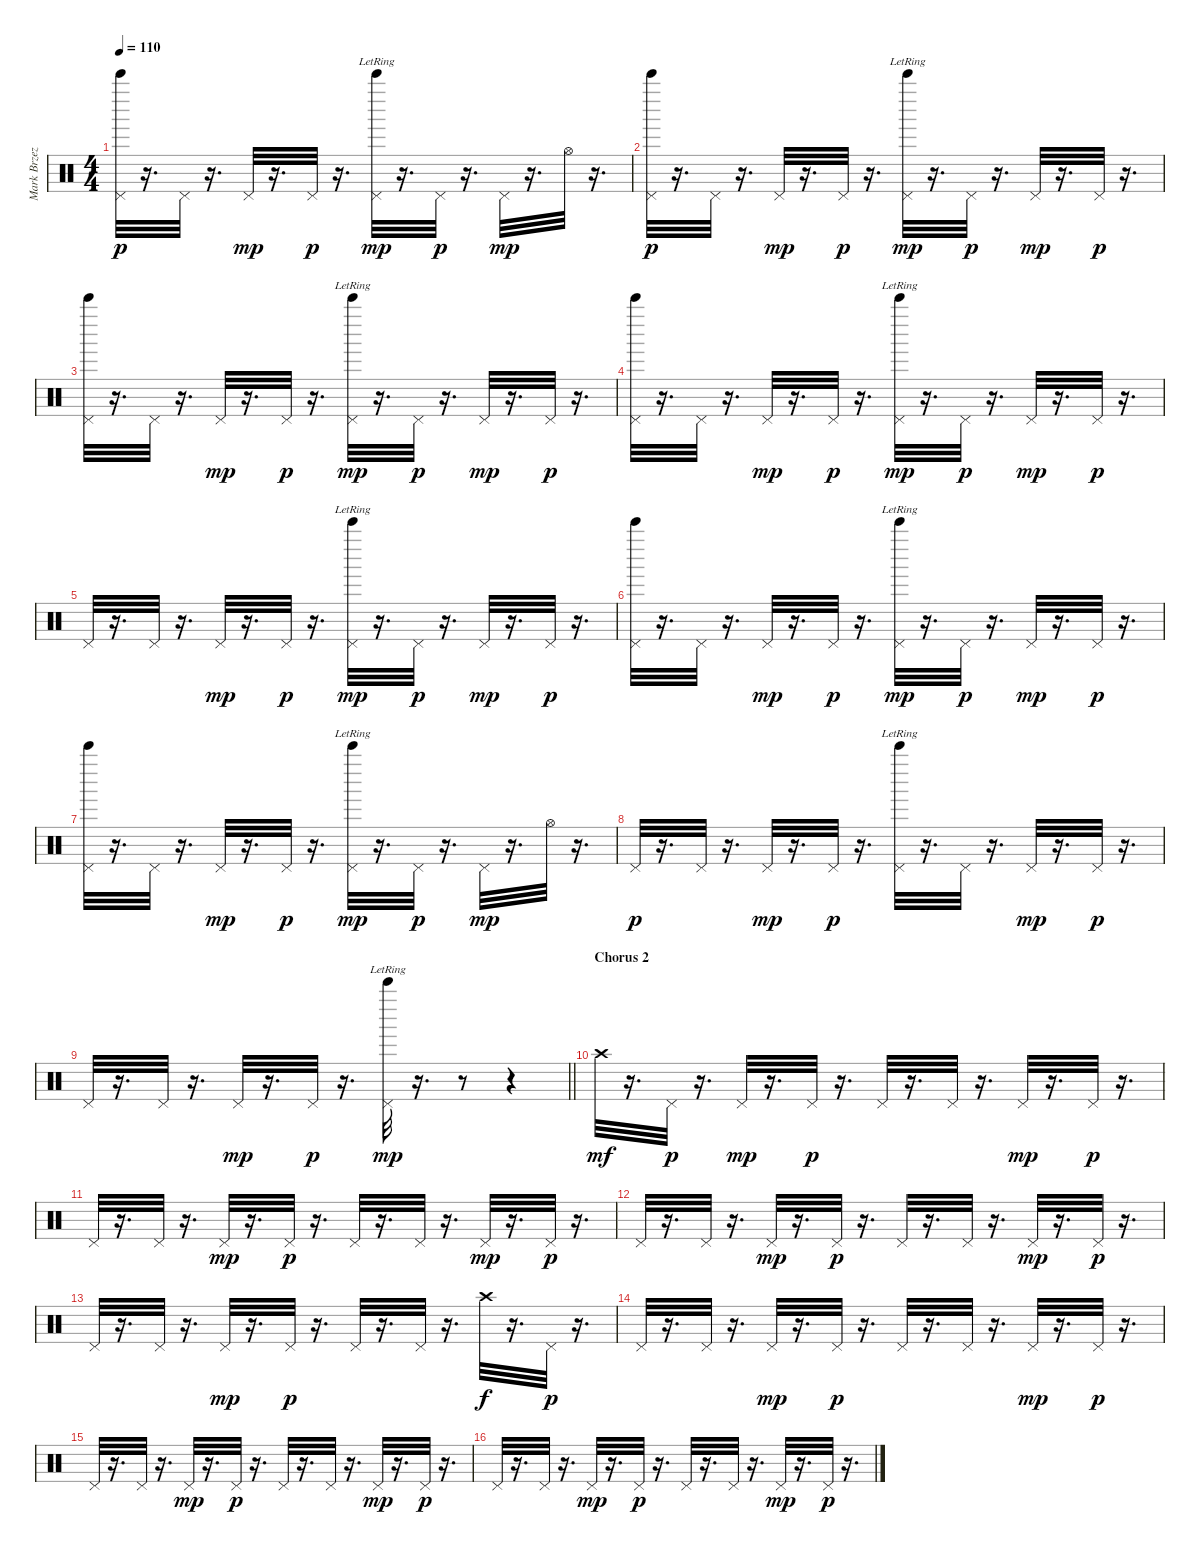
\track ("Mark Brzezicki - Cymbal (Crash, Open & C" "Mark Brzez") {instrument percussion}
\staff {score}
\articulation defaults
\ts (4 4)
\tempo 110
\clef neutral
\ks c
("Pedal Hi-Hat (hit)" "Bell Tree (hit)").32{dy p} r.16{d} "Pedal Hi-Hat (hit)".32 r.16{d} "Pedal Hi-Hat (hit)".32{dy mp} r.16{d} "Pedal Hi-Hat (hit)".32{dy p} r.16{d} ("Pedal Hi-Hat (hit)" "Bell Tree (hit)"{lr}).32{dy mp} r.16{d} "Pedal Hi-Hat (hit)".32{dy p} r.16{d} "Pedal Hi-Hat (hit)".32{dy mp} r.16{d} "Hi-Hat (open)".32 r.16{d} |
("Pedal Hi-Hat (hit)" "Bell Tree (hit)").32{dy p} r.16{d} "Pedal Hi-Hat (hit)".32 r.16{d} "Pedal Hi-Hat (hit)".32{dy mp} r.16{d} "Pedal Hi-Hat (hit)".32{dy p} r.16{d} ("Pedal Hi-Hat (hit)" "Bell Tree (hit)"{lr}).32{dy mp} r.16{d} "Pedal Hi-Hat (hit)".32{dy p} r.16{d} "Pedal Hi-Hat (hit)".32{dy mp} r.16{d} "Pedal Hi-Hat (hit)".32{dy p} r.16{d} |
("Pedal Hi-Hat (hit)" "Bell Tree (hit)").32 r.16{d} "Pedal Hi-Hat (hit)".32 r.16{d} "Pedal Hi-Hat (hit)".32{dy mp} r.16{d} "Pedal Hi-Hat (hit)".32{dy p} r.16{d} ("Pedal Hi-Hat (hit)" "Bell Tree (hit)"{lr}).32{dy mp} r.16{d} "Pedal Hi-Hat (hit)".32{dy p} r.16{d} "Pedal Hi-Hat (hit)".32{dy mp} r.16{d} "Pedal Hi-Hat (hit)".32{dy p} r.16{d} |
("Pedal Hi-Hat (hit)" "Bell Tree (hit)").32 r.16{d} "Pedal Hi-Hat (hit)".32 r.16{d} "Pedal Hi-Hat (hit)".32{dy mp} r.16{d} "Pedal Hi-Hat (hit)".32{dy p} r.16{d} ("Pedal Hi-Hat (hit)" "Bell Tree (hit)"{lr}).32{dy mp} r.16{d} "Pedal Hi-Hat (hit)".32{dy p} r.16{d} "Pedal Hi-Hat (hit)".32{dy mp} r.16{d} "Pedal Hi-Hat (hit)".32{dy p} r.16{d} |
"Pedal Hi-Hat (hit)".32 r.16{d} "Pedal Hi-Hat (hit)".32 r.16{d} "Pedal Hi-Hat (hit)".32{dy mp} r.16{d} "Pedal Hi-Hat (hit)".32{dy p} r.16{d} ("Pedal Hi-Hat (hit)" "Bell Tree (hit)"{lr}).32{dy mp} r.16{d} "Pedal Hi-Hat (hit)".32{dy p} r.16{d} "Pedal Hi-Hat (hit)".32{dy mp} r.16{d} "Pedal Hi-Hat (hit)".32{dy p} r.16{d} |
("Pedal Hi-Hat (hit)" "Bell Tree (hit)").32 r.16{d} "Pedal Hi-Hat (hit)".32 r.16{d} "Pedal Hi-Hat (hit)".32{dy mp} r.16{d} "Pedal Hi-Hat (hit)".32{dy p} r.16{d} ("Pedal Hi-Hat (hit)" "Bell Tree (hit)"{lr}).32{dy mp} r.16{d} "Pedal Hi-Hat (hit)".32{dy p} r.16{d} "Pedal Hi-Hat (hit)".32{dy mp} r.16{d} "Pedal Hi-Hat (hit)".32{dy p} r.16{d} |
("Pedal Hi-Hat (hit)" "Bell Tree (hit)").32 r.16{d} "Pedal Hi-Hat (hit)".32 r.16{d} "Pedal Hi-Hat (hit)".32{dy mp} r.16{d} "Pedal Hi-Hat (hit)".32{dy p} r.16{d} ("Pedal Hi-Hat (hit)" "Bell Tree (hit)"{lr}).32{dy mp} r.16{d} "Pedal Hi-Hat (hit)".32{dy p} r.16{d} "Pedal Hi-Hat (hit)".32{dy mp} r.16{d} "Hi-Hat (open)".32 r.16{d} |
"Pedal Hi-Hat (hit)".32{dy p} r.16{d} "Pedal Hi-Hat (hit)".32 r.16{d} "Pedal Hi-Hat (hit)".32{dy mp} r.16{d} "Pedal Hi-Hat (hit)".32{dy p} r.16{d} ("Pedal Hi-Hat (hit)" "Bell Tree (hit)"{lr}).32 r.16{d} "Pedal Hi-Hat (hit)".32 r.16{d} "Pedal Hi-Hat (hit)".32{dy mp} r.16{d} "Pedal Hi-Hat (hit)".32{dy p} r.16{d} |
\barLineRight lightlight "Pedal Hi-Hat (hit)".32
r.16{d} "Pedal Hi-Hat (hit)".32 r.16{d} "Pedal Hi-Hat (hit)".32{dy mp} r.16{d} "Pedal Hi-Hat (hit)".32{dy p} r.16{d} ("Pedal Hi-Hat (hit)" "Bell Tree (hit)"{lr}).32{dy mp} r.16{d} r.8 r.4 |
\section ("" "Chorus 2")
"Crash high (hit)".32{dy mf} r.16{d} "Pedal Hi-Hat (hit)".32{dy p} r.16{d} "Pedal Hi-Hat (hit)".32{dy mp} r.16{d} "Pedal Hi-Hat (hit)".32{dy p} r.16{d} "Pedal Hi-Hat (hit)".32 r.16{d} "Pedal Hi-Hat (hit)".32 r.16{d} "Pedal Hi-Hat (hit)".32{dy mp} r.16{d} "Pedal Hi-Hat (hit)".32{dy p} r.16{d} |
"Pedal Hi-Hat (hit)".32 r.16{d} "Pedal Hi-Hat (hit)".32 r.16{d} "Pedal Hi-Hat (hit)".32{dy mp} r.16{d} "Pedal Hi-Hat (hit)".32{dy p} r.16{d} "Pedal Hi-Hat (hit)".32 r.16{d} "Pedal Hi-Hat (hit)".32 r.16{d} "Pedal Hi-Hat (hit)".32{dy mp} r.16{d} "Pedal Hi-Hat (hit)".32{dy p} r.16{d} |
"Pedal Hi-Hat (hit)".32 r.16{d} "Pedal Hi-Hat (hit)".32 r.16{d} "Pedal Hi-Hat (hit)".32{dy mp} r.16{d} "Pedal Hi-Hat (hit)".32{dy p} r.16{d} "Pedal Hi-Hat (hit)".32 r.16{d} "Pedal Hi-Hat (hit)".32 r.16{d} "Pedal Hi-Hat (hit)".32{dy mp} r.16{d} "Pedal Hi-Hat (hit)".32{dy p} r.16{d} |
"Pedal Hi-Hat (hit)".32 r.16{d} "Pedal Hi-Hat (hit)".32 r.16{d} "Pedal Hi-Hat (hit)".32{dy mp} r.16{d} "Pedal Hi-Hat (hit)".32{dy p} r.16{d} "Pedal Hi-Hat (hit)".32 r.16{d} "Pedal Hi-Hat (hit)".32 r.16{d} "Crash high (hit)".32{dy f} r.16{d} "Pedal Hi-Hat (hit)".32{dy p} r.16{d} |
"Pedal Hi-Hat (hit)".32 r.16{d} "Pedal Hi-Hat (hit)".32 r.16{d} "Pedal Hi-Hat (hit)".32{dy mp} r.16{d} "Pedal Hi-Hat (hit)".32{dy p} r.16{d} "Pedal Hi-Hat (hit)".32 r.16{d} "Pedal Hi-Hat (hit)".32 r.16{d} "Pedal Hi-Hat (hit)".32{dy mp} r.16{d} "Pedal Hi-Hat (hit)".32{dy p} r.16{d} |
"Pedal Hi-Hat (hit)".32 r.16{d} "Pedal Hi-Hat (hit)".32 r.16{d} "Pedal Hi-Hat (hit)".32{dy mp} r.16{d} "Pedal Hi-Hat (hit)".32{dy p} r.16{d} "Pedal Hi-Hat (hit)".32 r.16{d} "Pedal Hi-Hat (hit)".32 r.16{d} "Pedal Hi-Hat (hit)".32{dy mp} r.16{d} "Pedal Hi-Hat (hit)".32{dy p} r.16{d} |
"Pedal Hi-Hat (hit)".32 r.16{d} "Pedal Hi-Hat (hit)".32 r.16{d} "Pedal Hi-Hat (hit)".32{dy mp} r.16{d} "Pedal Hi-Hat (hit)".32{dy p} r.16{d} "Pedal Hi-Hat (hit)".32 r.16{d} "Pedal Hi-Hat (hit)".32 r.16{d} "Pedal Hi-Hat (hit)".32{dy mp} r.16{d} "Pedal Hi-Hat (hit)".32{dy p} r.16{d}
